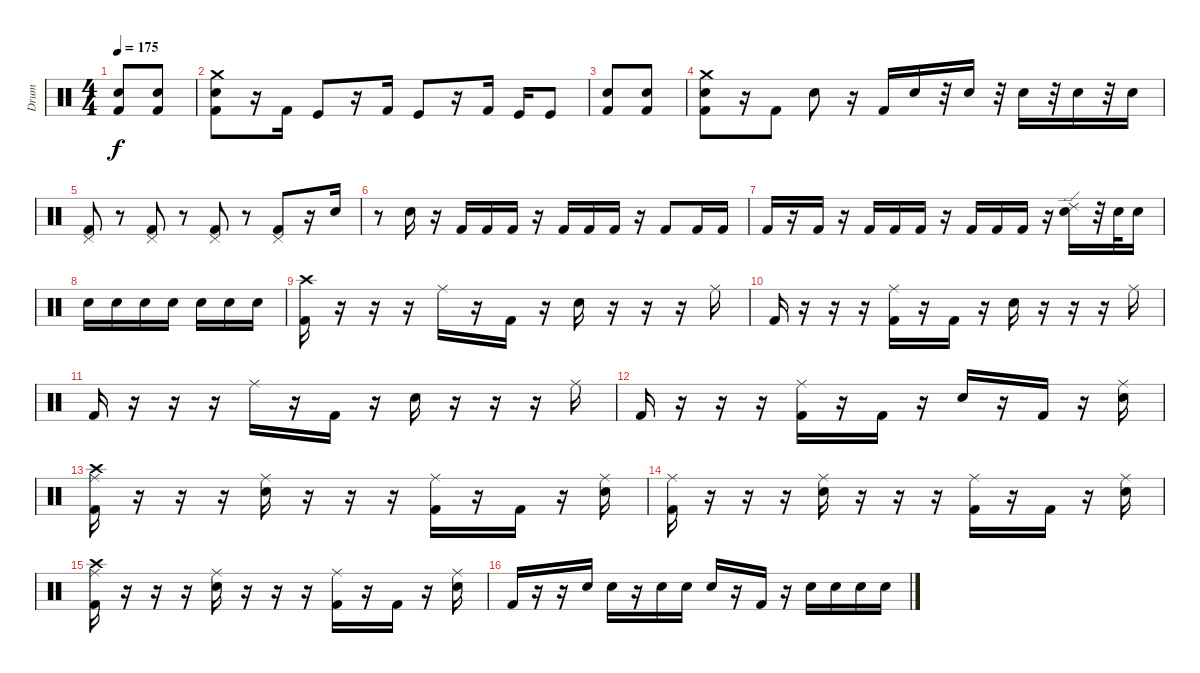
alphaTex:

\track ("Drum" "Drum") {instrument percussion}
\staff {score}
\articulation defaults
\ts (4 4)
\tempo 175
\clef neutral
\ks c
("Electric Snare (hit)" "Kick (hit) 2").8{dy f} ("Electric Snare (hit)" "Kick (hit) 2").8 |
("Electric Snare (hit)" "Kick (hit) 2" "Crash medium (hit)").8 r.16 "Kick (hit) 2".16 "Kick (hit)".8 r.16 "Kick (hit) 2".16 "Kick (hit)".8 r.16 "Kick (hit) 2".16 "Kick (hit)".16 "Kick (hit)".8 |
("Electric Snare (hit)" "Kick (hit) 2").8 ("Electric Snare (hit)" "Kick (hit) 2").8 |
("Electric Snare (hit)" "Kick (hit) 2" "Crash medium (hit)").8 r.16 "Kick (hit) 2".8 "Electric Snare (hit)".8 r.16 "Kick (hit) 2".16 "Electric Snare (hit)".16 r.32 "Electric Snare (hit)".16 r.32 "Electric Snare (hit)".16 r.32 "Electric Snare (hit)".16 r.32 "Electric Snare (hit)".16 |
("Pedal Hi-Hat (hit)" "Kick (hit) 2").8 r.8 ("Pedal Hi-Hat (hit)" "Kick (hit) 2").8 r.8 ("Pedal Hi-Hat (hit)" "Kick (hit) 2").8 r.8 ("Pedal Hi-Hat (hit)" "Kick (hit) 2").8 r.16 "Electric Snare (hit)".16 |
r.8 "Electric Snare (hit)".16 r.16 "Kick (hit) 2".16 "Kick (hit) 2".16 "Kick (hit) 2".16 r.16 "Kick (hit) 2".16 "Kick (hit) 2".16 "Kick (hit) 2".16 r.16 "Kick (hit) 2".8 "Kick (hit) 2".16 "Kick (hit) 2".16 |
"Kick (hit) 2".16 r.16 "Kick (hit) 2".16 r.16 "Kick (hit) 2".16 "Kick (hit) 2".16 "Kick (hit) 2".16 r.16 "Kick (hit) 2".16 "Kick (hit) 2".16 "Kick (hit) 2".16 r.16 ("Electric Snare (hit)" "Ride (edge) 2").16 r.32 "Electric Snare (hit)".32 "Electric Snare (hit)".16 |
"Electric Snare (hit)".16 "Electric Snare (hit)".16 "Electric Snare (hit)".16 "Electric Snare (hit)".16 "Electric Snare (hit)".16 "Electric Snare (hit)".16 "Electric Snare (hit)".16 |
("Kick (hit) 2" "Crash high (hit)").16 r.16 r.16 r.16 "Ride (middle)".16 r.16 "Kick (hit) 2".16 r.16 "Electric Snare (hit)".16 r.16 r.16 r.16 "Ride (middle)".16 |
"Kick (hit) 2".16 r.16 r.16 r.16 ("Ride (middle)" "Kick (hit) 2").16 r.16 "Kick (hit) 2".16 r.16 "Electric Snare (hit)".16 r.16 r.16 r.16 "Ride (middle)".16 |
"Kick (hit) 2".16 r.16 r.16 r.16 "Ride (middle)".16 r.16 "Kick (hit) 2".16 r.16 "Electric Snare (hit)".16 r.16 r.16 r.16 "Ride (middle)".16 |
"Kick (hit) 2".16 r.16 r.16 r.16 ("Ride (middle)" "Kick (hit) 2").16 r.16 "Kick (hit) 2".16 r.16 "Electric Snare (hit)".16 r.16 "Kick (hit) 2".16 r.16 ("Ride (middle)" "Electric Snare (hit)").16 |
("Ride (middle)" "Kick (hit) 2" "Crash high (hit)").16 r.16 r.16 r.16 ("Ride (middle)" "Electric Snare (hit)").16 r.16 r.16 r.16 ("Ride (middle)" "Kick (hit) 2").16 r.16 "Kick (hit) 2".16 r.16 ("Ride (middle)" "Electric Snare (hit)").16 |
("Ride (middle)" "Kick (hit) 2").16 r.16 r.16 r.16 ("Ride (middle)" "Electric Snare (hit)").16 r.16 r.16 r.16 ("Ride (middle)" "Kick (hit) 2").16 r.16 "Kick (hit) 2".16 r.16 ("Ride (middle)" "Electric Snare (hit)").16 |
("Ride (middle)" "Kick (hit) 2" "Crash high (hit)").16 r.16 r.16 r.16 ("Ride (middle)" "Electric Snare (hit)").16 r.16 r.16 r.16 ("Ride (middle)" "Kick (hit) 2").16 r.16 "Kick (hit) 2".16 r.16 ("Ride (middle)" "Electric Snare (hit)").16 |
"Kick (hit) 2".16 r.16 r.16 "Electric Snare (hit)".16 "Electric Snare (hit)".16 r.16 "Electric Snare (hit)".16 "Electric Snare (hit)".16 "Electric Snare (hit)".16 r.16 "Kick (hit) 2".16 r.16 "Electric Snare (hit)".16 "Electric Snare (hit)".16 "Electric Snare (hit)".16 "Electric Snare (hit)".16
